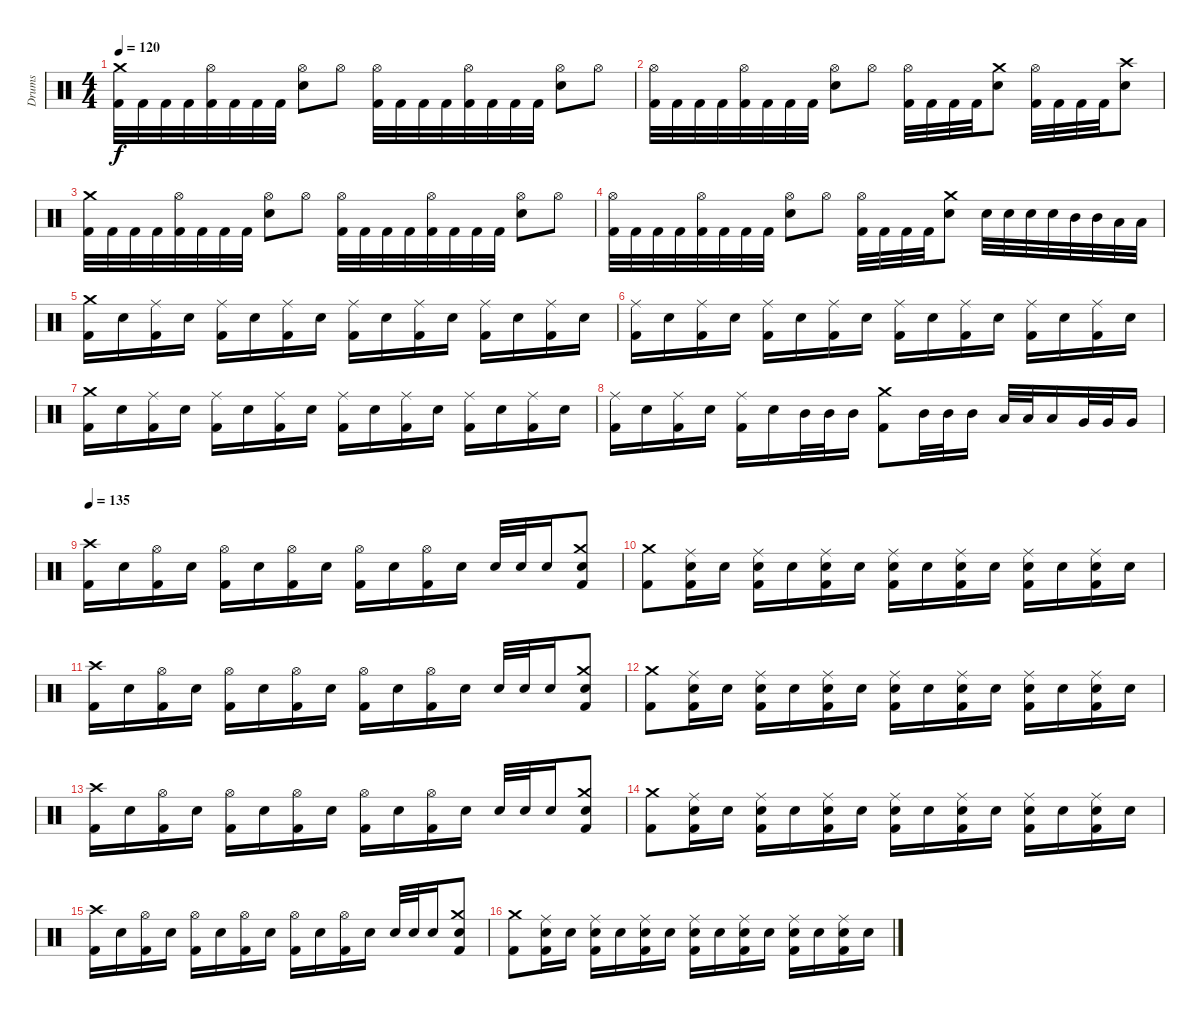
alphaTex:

\track ("Drums" "Drums") {instrument percussion}
\staff {score}
\articulation defaults
\ts (4 4)
\tempo 120
\clef neutral
\ks c
("Kick (hit) 2" "Crash medium (hit)").32{dy f} "Kick (hit) 2".32 "Kick (hit) 2".32 "Kick (hit) 2".32 ("Kick (hit) 2" "Hi-Hat (open)").32 "Kick (hit) 2".32 "Kick (hit) 2".32 "Kick (hit) 2".32 ("Electric Snare (hit)" "Hi-Hat (open)").8 "Hi-Hat (open)".8 ("Kick (hit) 2" "Hi-Hat (open)").32 "Kick (hit) 2".32 "Kick (hit) 2".32 "Kick (hit) 2".32 ("Kick (hit) 2" "Hi-Hat (open)").32 "Kick (hit) 2".32 "Kick (hit) 2".32 "Kick (hit) 2".32 ("Electric Snare (hit)" "Hi-Hat (open)").8 "Hi-Hat (open)".8 |
("Kick (hit) 2" "Hi-Hat (open)").32 "Kick (hit) 2".32 "Kick (hit) 2".32 "Kick (hit) 2".32 ("Kick (hit) 2" "Hi-Hat (open)").32 "Kick (hit) 2".32 "Kick (hit) 2".32 "Kick (hit) 2".32 ("Electric Snare (hit)" "Hi-Hat (open)").8 "Hi-Hat (open)".8 ("Kick (hit) 2" "Hi-Hat (open)").32 "Kick (hit) 2".32 "Kick (hit) 2".32 "Kick (hit) 2".32 ("Electric Snare (hit)" "Crash medium (hit)").8 ("Kick (hit) 2" "Hi-Hat (open)").32 "Kick (hit) 2".32 "Kick (hit) 2".32 "Kick (hit) 2".32 ("Electric Snare (hit)" "Crash high (hit)").8 |
("Kick (hit) 2" "Crash medium (hit)").32 "Kick (hit) 2".32 "Kick (hit) 2".32 "Kick (hit) 2".32 ("Kick (hit) 2" "Hi-Hat (open)").32 "Kick (hit) 2".32 "Kick (hit) 2".32 "Kick (hit) 2".32 ("Electric Snare (hit)" "Hi-Hat (open)").8 "Hi-Hat (open)".8 ("Kick (hit) 2" "Hi-Hat (open)").32 "Kick (hit) 2".32 "Kick (hit) 2".32 "Kick (hit) 2".32 ("Kick (hit) 2" "Hi-Hat (open)").32 "Kick (hit) 2".32 "Kick (hit) 2".32 "Kick (hit) 2".32 ("Electric Snare (hit)" "Hi-Hat (open)").8 "Hi-Hat (open)".8 |
("Kick (hit) 2" "Hi-Hat (open)").32 "Kick (hit) 2".32 "Kick (hit) 2".32 "Kick (hit) 2".32 ("Kick (hit) 2" "Hi-Hat (open)").32 "Kick (hit) 2".32 "Kick (hit) 2".32 "Kick (hit) 2".32 ("Electric Snare (hit)" "Hi-Hat (open)").8 "Hi-Hat (open)".8 ("Kick (hit) 2" "Hi-Hat (open)").32 "Kick (hit) 2".32 "Kick (hit) 2".32 "Kick (hit) 2".32 ("Electric Snare (hit)" "Crash medium (hit)").8 "Electric Snare (hit)".32 "Electric Snare (hit)".32 "Electric Snare (hit)".32 "Electric Snare (hit)".32 "Mid Tom (hit)".32 "Mid Tom (hit)".32 "Low Tom (hit)".32 "Low Tom (hit)".32 |
("Kick (hit) 2" "Crash medium (hit)").16 "Electric Snare (hit)".16 ("Kick (hit) 2" "Ride (middle)").16 "Electric Snare (hit)".16 ("Kick (hit) 2" "Ride (middle)").16 "Electric Snare (hit)".16 ("Kick (hit) 2" "Ride (middle)").16 "Electric Snare (hit)".16 ("Kick (hit) 2" "Ride (middle)").16 "Electric Snare (hit)".16 ("Kick (hit) 2" "Ride (middle)").16 "Electric Snare (hit)".16 ("Kick (hit) 2" "Ride (middle)").16 "Electric Snare (hit)".16 ("Kick (hit) 2" "Ride (middle)").16 "Electric Snare (hit)".16 |
("Kick (hit) 2" "Ride (middle)").16 "Electric Snare (hit)".16 ("Kick (hit) 2" "Ride (middle)").16 "Electric Snare (hit)".16 ("Kick (hit) 2" "Ride (middle)").16 "Electric Snare (hit)".16 ("Kick (hit) 2" "Ride (middle)").16 "Electric Snare (hit)".16 ("Kick (hit) 2" "Ride (middle)").16 "Electric Snare (hit)".16 ("Kick (hit) 2" "Ride (middle)").16 "Electric Snare (hit)".16 ("Kick (hit) 2" "Ride (middle)").16 "Electric Snare (hit)".16 ("Kick (hit) 2" "Ride (middle)").16 "Electric Snare (hit)".16 |
("Kick (hit) 2" "Crash medium (hit)").16 "Electric Snare (hit)".16 ("Kick (hit) 2" "Ride (middle)").16 "Electric Snare (hit)".16 ("Kick (hit) 2" "Ride (middle)").16 "Electric Snare (hit)".16 ("Kick (hit) 2" "Ride (middle)").16 "Electric Snare (hit)".16 ("Kick (hit) 2" "Ride (middle)").16 "Electric Snare (hit)".16 ("Kick (hit) 2" "Ride (middle)").16 "Electric Snare (hit)".16 ("Kick (hit) 2" "Ride (middle)").16 "Electric Snare (hit)".16 ("Kick (hit) 2" "Ride (middle)").16 "Electric Snare (hit)".16 |
("Kick (hit) 2" "Ride (middle)").16 "Electric Snare (hit)".16 ("Kick (hit) 2" "Ride (middle)").16 "Electric Snare (hit)".16 ("Kick (hit) 2" "Ride (middle)").16 "Electric Snare (hit)".16 "Mid Tom (hit)".32 "Mid Tom (hit)".32 "Mid Tom (hit)".16 ("Kick (hit) 2" "Crash medium (hit)").8 "Mid Tom (hit)".32 "Mid Tom (hit)".32 "Mid Tom (hit)".16 "Low Tom (hit)".32 "Low Tom (hit)".32 "Low Tom (hit)".16 "Very Low Tom (hit)".32 "Very Low Tom (hit)".32 "Very Low Tom (hit)".16 |
\tempo 135
("Kick (hit) 2" "Crash high (hit)").16 "Electric Snare (hit)".16 ("Kick (hit) 2" "Hi-Hat (open)").16 "Electric Snare (hit)".16 ("Kick (hit) 2" "Hi-Hat (open)").16 "Electric Snare (hit)".16 ("Kick (hit) 2" "Hi-Hat (open)").16 "Electric Snare (hit)".16 ("Kick (hit) 2" "Hi-Hat (open)").16 "Electric Snare (hit)".16 ("Kick (hit) 2" "Hi-Hat (open)").16 "Electric Snare (hit)".16 "Electric Snare (hit)".32 "Electric Snare (hit)".32 "Electric Snare (hit)".16 ("Kick (hit) 2" "Electric Snare (hit)" "Crash medium (hit)").8 |
("Kick (hit) 2" "Crash medium (hit)").8 ("Kick (hit) 2" "Electric Snare (hit)" "Ride (middle)").16 "Electric Snare (hit)".16 ("Kick (hit) 2" "Electric Snare (hit)" "Ride (middle)").16 "Electric Snare (hit)".16 ("Kick (hit) 2" "Electric Snare (hit)" "Ride (middle)").16 "Electric Snare (hit)".16 ("Kick (hit) 2" "Electric Snare (hit)" "Ride (middle)").16 "Electric Snare (hit)".16 ("Kick (hit) 2" "Electric Snare (hit)" "Ride (middle)").16 "Electric Snare (hit)".16 ("Kick (hit) 2" "Electric Snare (hit)" "Ride (middle)").16 "Electric Snare (hit)".16 ("Kick (hit) 2" "Electric Snare (hit)" "Ride (middle)").16 "Electric Snare (hit)".16 |
("Kick (hit) 2" "Crash high (hit)").16 "Electric Snare (hit)".16 ("Kick (hit) 2" "Hi-Hat (open)").16 "Electric Snare (hit)".16 ("Kick (hit) 2" "Hi-Hat (open)").16 "Electric Snare (hit)".16 ("Kick (hit) 2" "Hi-Hat (open)").16 "Electric Snare (hit)".16 ("Kick (hit) 2" "Hi-Hat (open)").16 "Electric Snare (hit)".16 ("Kick (hit) 2" "Hi-Hat (open)").16 "Electric Snare (hit)".16 "Electric Snare (hit)".32 "Electric Snare (hit)".32 "Electric Snare (hit)".16 ("Kick (hit) 2" "Electric Snare (hit)" "Crash medium (hit)").8 |
("Kick (hit) 2" "Crash medium (hit)").8 ("Kick (hit) 2" "Electric Snare (hit)" "Ride (middle)").16 "Electric Snare (hit)".16 ("Kick (hit) 2" "Electric Snare (hit)" "Ride (middle)").16 "Electric Snare (hit)".16 ("Kick (hit) 2" "Electric Snare (hit)" "Ride (middle)").16 "Electric Snare (hit)".16 ("Kick (hit) 2" "Electric Snare (hit)" "Ride (middle)").16 "Electric Snare (hit)".16 ("Kick (hit) 2" "Electric Snare (hit)" "Ride (middle)").16 "Electric Snare (hit)".16 ("Kick (hit) 2" "Electric Snare (hit)" "Ride (middle)").16 "Electric Snare (hit)".16 ("Kick (hit) 2" "Electric Snare (hit)" "Ride (middle)").16 "Electric Snare (hit)".16 |
("Kick (hit) 2" "Crash high (hit)").16 "Electric Snare (hit)".16 ("Kick (hit) 2" "Hi-Hat (open)").16 "Electric Snare (hit)".16 ("Kick (hit) 2" "Hi-Hat (open)").16 "Electric Snare (hit)".16 ("Kick (hit) 2" "Hi-Hat (open)").16 "Electric Snare (hit)".16 ("Kick (hit) 2" "Hi-Hat (open)").16 "Electric Snare (hit)".16 ("Kick (hit) 2" "Hi-Hat (open)").16 "Electric Snare (hit)".16 "Electric Snare (hit)".32 "Electric Snare (hit)".32 "Electric Snare (hit)".16 ("Kick (hit) 2" "Electric Snare (hit)" "Crash medium (hit)").8 |
("Kick (hit) 2" "Crash medium (hit)").8 ("Kick (hit) 2" "Electric Snare (hit)" "Ride (middle)").16 "Electric Snare (hit)".16 ("Kick (hit) 2" "Electric Snare (hit)" "Ride (middle)").16 "Electric Snare (hit)".16 ("Kick (hit) 2" "Electric Snare (hit)" "Ride (middle)").16 "Electric Snare (hit)".16 ("Kick (hit) 2" "Electric Snare (hit)" "Ride (middle)").16 "Electric Snare (hit)".16 ("Kick (hit) 2" "Electric Snare (hit)" "Ride (middle)").16 "Electric Snare (hit)".16 ("Kick (hit) 2" "Electric Snare (hit)" "Ride (middle)").16 "Electric Snare (hit)".16 ("Kick (hit) 2" "Electric Snare (hit)" "Ride (middle)").16 "Electric Snare (hit)".16 |
("Kick (hit) 2" "Crash high (hit)").16 "Electric Snare (hit)".16 ("Kick (hit) 2" "Hi-Hat (open)").16 "Electric Snare (hit)".16 ("Kick (hit) 2" "Hi-Hat (open)").16 "Electric Snare (hit)".16 ("Kick (hit) 2" "Hi-Hat (open)").16 "Electric Snare (hit)".16 ("Kick (hit) 2" "Hi-Hat (open)").16 "Electric Snare (hit)".16 ("Kick (hit) 2" "Hi-Hat (open)").16 "Electric Snare (hit)".16 "Electric Snare (hit)".32 "Electric Snare (hit)".32 "Electric Snare (hit)".16 ("Kick (hit) 2" "Electric Snare (hit)" "Crash medium (hit)").8 |
("Kick (hit) 2" "Crash medium (hit)").8 ("Kick (hit) 2" "Electric Snare (hit)" "Ride (middle)").16 "Electric Snare (hit)".16 ("Kick (hit) 2" "Electric Snare (hit)" "Ride (middle)").16 "Electric Snare (hit)".16 ("Kick (hit) 2" "Electric Snare (hit)" "Ride (middle)").16 "Electric Snare (hit)".16 ("Kick (hit) 2" "Electric Snare (hit)" "Ride (middle)").16 "Electric Snare (hit)".16 ("Kick (hit) 2" "Electric Snare (hit)" "Ride (middle)").16 "Electric Snare (hit)".16 ("Kick (hit) 2" "Electric Snare (hit)" "Ride (middle)").16 "Electric Snare (hit)".16 ("Kick (hit) 2" "Electric Snare (hit)" "Ride (middle)").16 "Electric Snare (hit)".16
